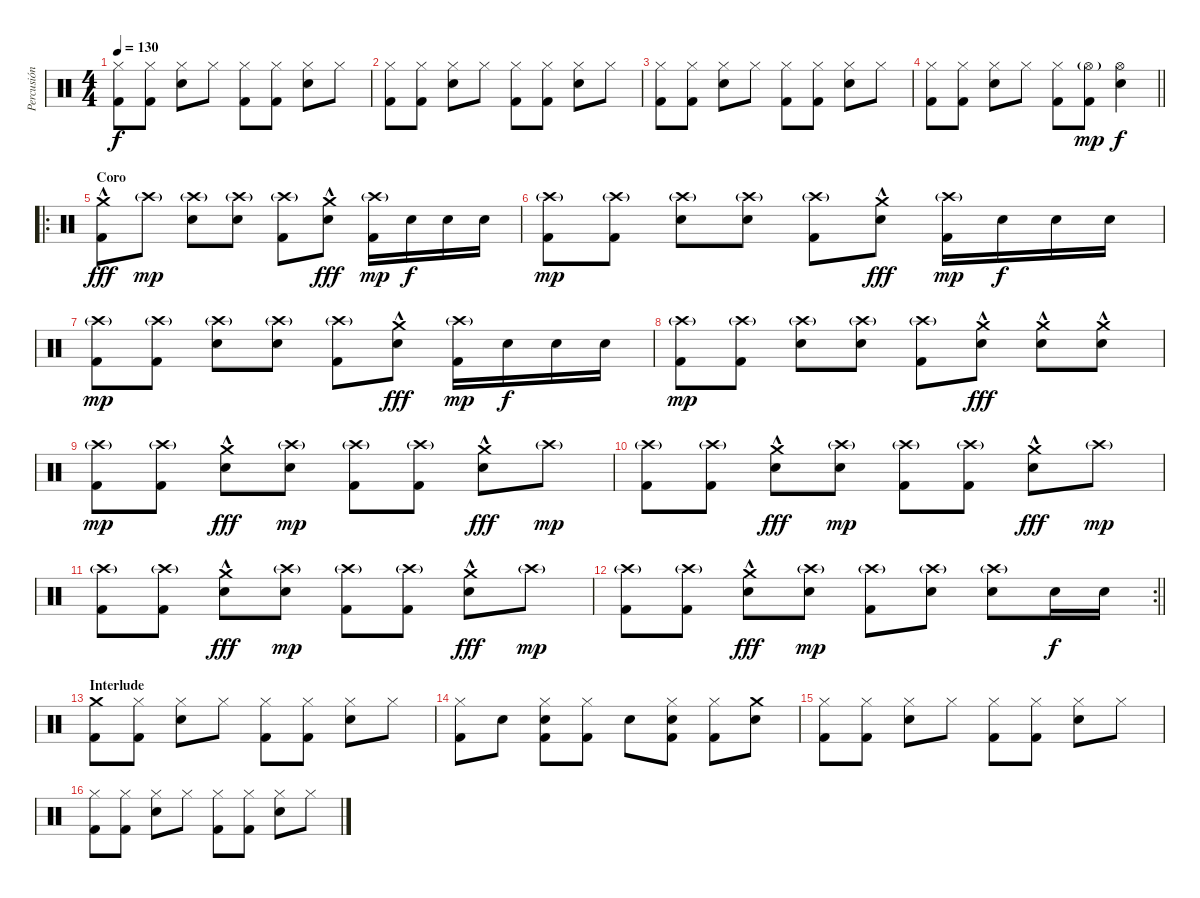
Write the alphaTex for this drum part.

\track ("Percusión" "Percusión") {instrument percussion}
\staff {score}
\articulation defaults
\ts (4 4)
\tempo 130
\clef neutral
\ks c
("Hi-Hat (closed)" "Kick (hit) 2").8{dy f} ("Hi-Hat (closed)" "Kick (hit) 2").8 ("Hi-Hat (closed)" "Electric Snare (hit)").8 "Hi-Hat (closed)".8 ("Hi-Hat (closed)" "Kick (hit) 2").8 ("Hi-Hat (closed)" "Kick (hit) 2").8 ("Hi-Hat (closed)" "Electric Snare (hit)").8 "Hi-Hat (closed)".8 |
("Hi-Hat (closed)" "Kick (hit) 2").8 ("Hi-Hat (closed)" "Kick (hit) 2").8 ("Hi-Hat (closed)" "Electric Snare (hit)").8 "Hi-Hat (closed)".8 ("Hi-Hat (closed)" "Kick (hit) 2").8 ("Hi-Hat (closed)" "Kick (hit) 2").8 ("Hi-Hat (closed)" "Electric Snare (hit)").8 "Hi-Hat (closed)".8 |
("Hi-Hat (closed)" "Kick (hit) 2").8 ("Hi-Hat (closed)" "Kick (hit) 2").8 ("Hi-Hat (closed)" "Electric Snare (hit)").8 "Hi-Hat (closed)".8 ("Hi-Hat (closed)" "Kick (hit) 2").8 ("Hi-Hat (closed)" "Kick (hit) 2").8 ("Hi-Hat (closed)" "Electric Snare (hit)").8 "Hi-Hat (closed)".8 |
\barLineRight lightlight
("Hi-Hat (closed)" "Kick (hit) 2").8 ("Hi-Hat (closed)" "Kick (hit) 2").8 ("Hi-Hat (closed)" "Electric Snare (hit)").8 "Hi-Hat (closed)".8 ("Hi-Hat (closed)" "Kick (hit) 2").8 ("Hi-Hat (open)"{g} "Kick (hit) 2").8{dy mp} ("Hi-Hat (open)" "Electric Snare (hit)").4{dy f} |
\ro
\section ("" "Coro")
("Crash medium (hit)"{hac} "Kick (hit) 2").8{dy fff} "Crash high (hit)"{g}.8{dy mp} ("Crash high (hit)"{g} "Electric Snare (hit)").8 ("Crash high (hit)"{g} "Electric Snare (hit)").8 ("Crash high (hit)"{g} "Kick (hit) 2").8 ("Crash medium (hit)"{hac} "Electric Snare (hit)").8{dy fff} ("Crash high (hit)"{g} "Kick (hit) 2").16{dy mp} "Electric Snare (hit)".16{dy f} "Electric Snare (hit)".16 "Electric Snare (hit)".16 |
("Crash high (hit)"{g} "Kick (hit) 2").8{dy mp} ("Crash high (hit)"{g} "Kick (hit) 2").8 ("Crash high (hit)"{g} "Electric Snare (hit)").8 ("Crash high (hit)"{g} "Electric Snare (hit)").8 ("Crash high (hit)"{g} "Kick (hit) 2").8 ("Crash medium (hit)"{hac} "Electric Snare (hit)").8{dy fff} ("Crash high (hit)"{g} "Kick (hit) 2").16{dy mp} "Electric Snare (hit)".16{dy f} "Electric Snare (hit)".16 "Electric Snare (hit)".16 |
("Crash high (hit)"{g} "Kick (hit) 2").8{dy mp} ("Crash high (hit)"{g} "Kick (hit) 2").8 ("Crash high (hit)"{g} "Electric Snare (hit)").8 ("Crash high (hit)"{g} "Electric Snare (hit)").8 ("Crash high (hit)"{g} "Kick (hit) 2").8 ("Crash medium (hit)"{hac} "Electric Snare (hit)").8{dy fff} ("Crash high (hit)"{g} "Kick (hit) 2").16{dy mp} "Electric Snare (hit)".16{dy f} "Electric Snare (hit)".16 "Electric Snare (hit)".16 |
("Crash high (hit)"{g} "Kick (hit) 2").8{dy mp} ("Crash high (hit)"{g} "Kick (hit) 2").8 ("Crash high (hit)"{g} "Electric Snare (hit)").8 ("Crash high (hit)"{g} "Electric Snare (hit)").8 ("Crash high (hit)"{g} "Kick (hit) 2").8 ("Crash medium (hit)"{hac} "Electric Snare (hit)").8{dy fff} ("Crash medium (hit)"{hac} "Electric Snare (hit)").8 ("Crash medium (hit)"{hac} "Electric Snare (hit)").8 |
("Crash high (hit)"{g} "Kick (hit) 2").8{dy mp} ("Crash high (hit)"{g} "Kick (hit) 2").8 ("Crash medium (hit)"{hac} "Electric Snare (hit)").8{dy fff} ("Crash high (hit)"{g} "Electric Snare (hit)").8{dy mp} ("Crash high (hit)"{g} "Kick (hit) 2").8 ("Crash high (hit)"{g} "Kick (hit) 2").8 ("Crash medium (hit)"{hac} "Electric Snare (hit)").8{dy fff} "Crash high (hit)"{g}.8{dy mp} |
("Crash high (hit)"{g} "Kick (hit) 2").8 ("Crash high (hit)"{g} "Kick (hit) 2").8 ("Crash medium (hit)"{hac} "Electric Snare (hit)").8{dy fff} ("Crash high (hit)"{g} "Electric Snare (hit)").8{dy mp} ("Crash high (hit)"{g} "Kick (hit) 2").8 ("Crash high (hit)"{g} "Kick (hit) 2").8 ("Crash medium (hit)"{hac} "Electric Snare (hit)").8{dy fff} "Crash high (hit)"{g}.8{dy mp} |
("Crash high (hit)"{g} "Kick (hit) 2").8 ("Crash high (hit)"{g} "Kick (hit) 2").8 ("Crash medium (hit)"{hac} "Electric Snare (hit)").8{dy fff} ("Crash high (hit)"{g} "Electric Snare (hit)").8{dy mp} ("Crash high (hit)"{g} "Kick (hit) 2").8 ("Crash high (hit)"{g} "Kick (hit) 2").8 ("Crash medium (hit)"{hac} "Electric Snare (hit)").8{dy fff} "Crash high (hit)"{g}.8{dy mp} |
\rc 2
\barLineRight lightlight
("Crash high (hit)"{g} "Kick (hit) 2").8 ("Crash high (hit)"{g} "Kick (hit) 2").8 ("Crash medium (hit)"{hac} "Electric Snare (hit)").8{dy fff} ("Crash high (hit)"{g} "Electric Snare (hit)").8{dy mp} ("Crash high (hit)"{g} "Kick (hit) 2").8 ("Crash high (hit)"{g} "Electric Snare (hit)").8 ("Crash high (hit)"{g} "Electric Snare (hit)").8 "Electric Snare (hit)".16{dy f} "Electric Snare (hit)".16 |
\section ("" "Interlude")
("Crash medium (hit)" "Kick (hit) 2").8 ("Hi-Hat (closed)" "Kick (hit) 2").8 ("Hi-Hat (closed)" "Electric Snare (hit)").8 "Hi-Hat (closed)".8 ("Hi-Hat (closed)" "Kick (hit) 2").8 ("Hi-Hat (closed)" "Kick (hit) 2").8 ("Hi-Hat (closed)" "Electric Snare (hit)").8 "Hi-Hat (closed)".8 |
("Hi-Hat (closed)" "Kick (hit) 2").8 "Electric Snare (hit)".8 ("Hi-Hat (closed)" "Electric Snare (hit)" "Kick (hit) 2").8 ("Hi-Hat (closed)" "Kick (hit) 2").8 "Electric Snare (hit)".8 ("Hi-Hat (closed)" "Electric Snare (hit)" "Kick (hit) 2").8 ("Hi-Hat (closed)" "Kick (hit) 2").8 ("Crash medium (hit)" "Electric Snare (hit)").8 |
("Hi-Hat (closed)" "Kick (hit) 2").8 ("Hi-Hat (closed)" "Kick (hit) 2").8 ("Hi-Hat (closed)" "Electric Snare (hit)").8 "Hi-Hat (closed)".8 ("Hi-Hat (closed)" "Kick (hit) 2").8 ("Hi-Hat (closed)" "Kick (hit) 2").8 ("Hi-Hat (closed)" "Electric Snare (hit)").8 "Hi-Hat (closed)".8 |
("Hi-Hat (closed)" "Kick (hit) 2").8 ("Hi-Hat (closed)" "Kick (hit) 2").8 ("Hi-Hat (closed)" "Electric Snare (hit)").8 "Hi-Hat (closed)".8 ("Hi-Hat (closed)" "Kick (hit) 2").8 ("Hi-Hat (closed)" "Kick (hit) 2").8 ("Hi-Hat (closed)" "Electric Snare (hit)").8 "Hi-Hat (closed)".8
